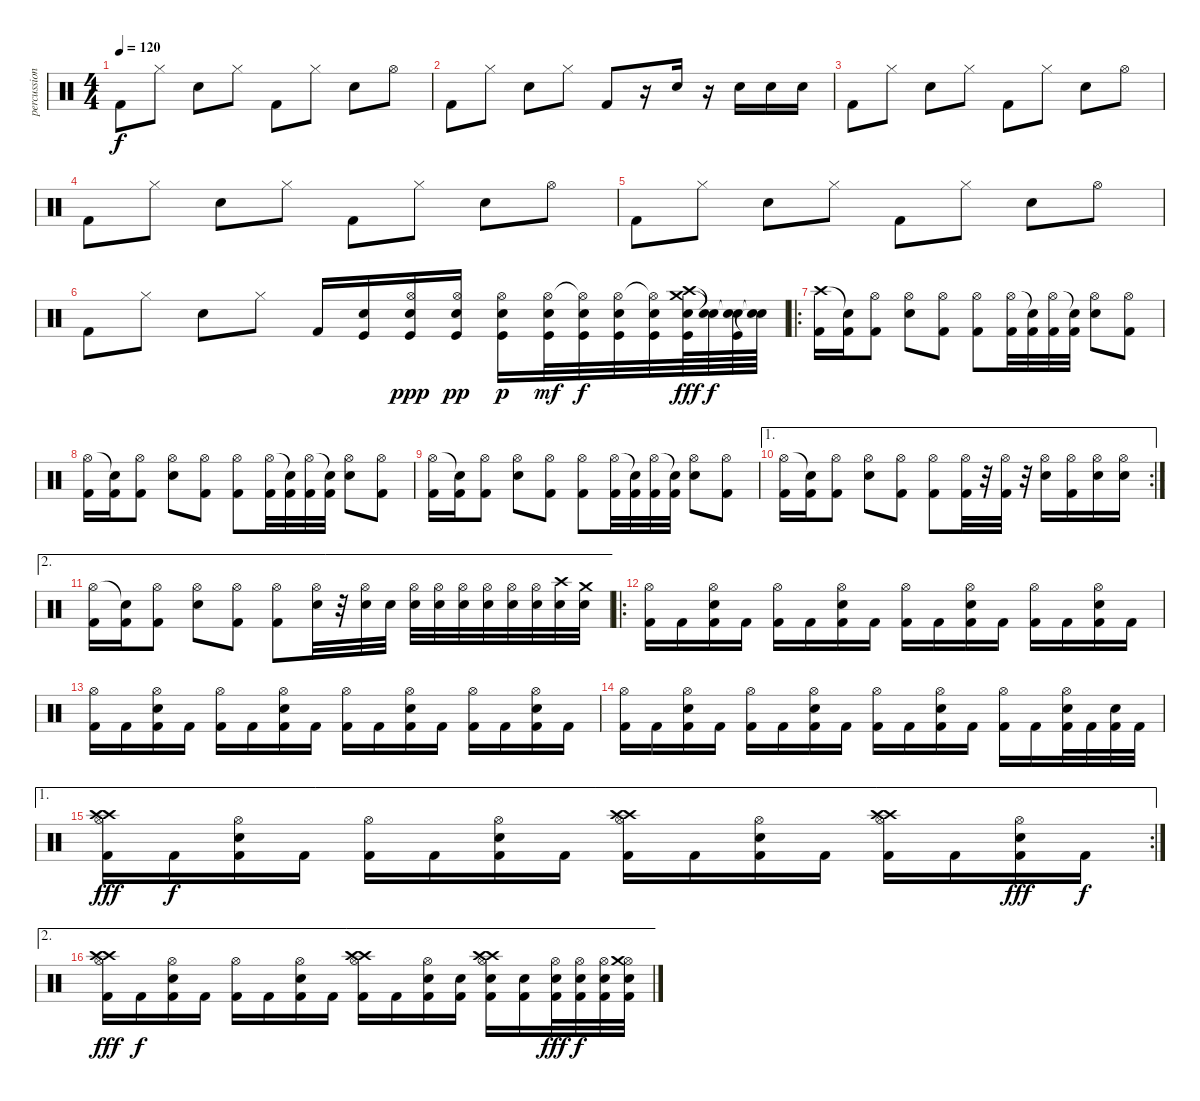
\track ("percussions" "percussion") {instrument percussion}
\staff {score}
\articulation defaults
\ts (4 4)
\tempo 120
\clef neutral
\ks c "Kick (hit) 2".8{dy f} "Hi-Hat (closed)".8 "Electric Snare (hit)".8 "Hi-Hat (closed)".8 "Kick (hit) 2".8 "Hi-Hat (closed)".8 "Electric Snare (hit)".8 "Hi-Hat (open)".8
|
"Kick (hit) 2".8 "Hi-Hat (closed)".8 "Electric Snare (hit)".8 "Hi-Hat (closed)".8 "Kick (hit) 2".8 r.16 "Electric Snare (hit)".16 r.16 "Electric Snare (hit)".16 "Electric Snare (hit)".16 "Electric Snare (hit)".16 |
"Kick (hit) 2".8 "Hi-Hat (closed)".8 "Electric Snare (hit)".8 "Hi-Hat (closed)".8 "Kick (hit) 2".8 "Hi-Hat (closed)".8 "Electric Snare (hit)".8 "Hi-Hat (open)".8 |
"Kick (hit) 2".8 "Hi-Hat (closed)".8 "Electric Snare (hit)".8 "Hi-Hat (closed)".8 "Kick (hit) 2".8 "Hi-Hat (closed)".8 "Electric Snare (hit)".8 "Hi-Hat (open)".8 |
"Kick (hit) 2".8 "Hi-Hat (closed)".8 "Electric Snare (hit)".8 "Hi-Hat (closed)".8 "Kick (hit) 2".8 "Hi-Hat (closed)".8 "Electric Snare (hit)".8 "Hi-Hat (open)".8 |
"Kick (hit) 2".8 "Hi-Hat (closed)".8 "Electric Snare (hit)".8 "Hi-Hat (closed)".8 "Kick (hit) 2".16 ("Kick (hit)" "Electric Snare (hit)").16 ("Hi-Hat (open)" "Kick (hit)" "Electric Snare (hit)").16{dy ppp} ("Hi-Hat (open)" "Kick (hit)" "Electric Snare (hit)").16{dy pp} ("Hi-Hat (open)" "Kick (hit)" "Electric Snare (hit)").16{dy p} ("Hi-Hat (open)" "Kick (hit)" "Electric Snare (hit)").32{dy mf} ("Hi-Hat (open)"{t} "Kick (hit)" "Electric Snare (hit)").32{dy f} ("Hi-Hat (open)" "Kick (hit)" "Electric Snare (hit)").32 ("Hi-Hat (open)"{t} "Kick (hit)" "Electric Snare (hit)").32 ("Crash medium (hit)" "Crash high (hit)" "Kick (hit)" "Electric Snare (hit)").64{dy fff} ("Snare (hit)"{t} "Electric Snare (hit)"{t}).64{dy f} ("Snare (hit)"{t} "Kick (hit)" "Electric Snare (hit)").64 ("Snare (hit)"{t} "Electric Snare (hit)"{t}).64 |
\ro
("Crash high (hit)" "Kick (hit) 2").16 ("Snare (hit)"{t} "Kick (hit) 2").16 ("Hi-Hat (open)" "Kick (hit) 2").8 ("Hi-Hat (open)" "Electric Snare (hit)").8 ("Hi-Hat (open)" "Kick (hit) 2").8 ("Hi-Hat (open)" "Kick (hit) 2").8 ("Hi-Hat (open)" "Kick (hit) 2").32 ("Snare (hit)"{t} "Kick (hit) 2").32 ("Hi-Hat (open)" "Kick (hit) 2").32 ("Snare (hit)"{t} "Kick (hit) 2").32 ("Hi-Hat (open)" "Electric Snare (hit)").8 ("Hi-Hat (open)" "Kick (hit) 2").8 |
("Hi-Hat (open)" "Kick (hit) 2").16 ("Snare (hit)"{t} "Kick (hit) 2").16 ("Hi-Hat (open)" "Kick (hit) 2").8 ("Hi-Hat (open)" "Electric Snare (hit)").8 ("Hi-Hat (open)" "Kick (hit) 2").8 ("Hi-Hat (open)" "Kick (hit) 2").8 ("Hi-Hat (open)" "Kick (hit) 2").32 ("Snare (hit)"{t} "Kick (hit) 2").32 ("Hi-Hat (open)" "Kick (hit) 2").32 ("Snare (hit)"{t} "Kick (hit) 2").32 ("Hi-Hat (open)" "Electric Snare (hit)").8 ("Hi-Hat (open)" "Kick (hit) 2").8 |
("Hi-Hat (open)" "Kick (hit) 2").16 ("Snare (hit)"{t} "Kick (hit) 2").16 ("Hi-Hat (open)" "Kick (hit) 2").8 ("Hi-Hat (open)" "Electric Snare (hit)").8 ("Hi-Hat (open)" "Kick (hit) 2").8 ("Hi-Hat (open)" "Kick (hit) 2").8 ("Hi-Hat (open)" "Kick (hit) 2").32 ("Snare (hit)"{t} "Kick (hit) 2").32 ("Hi-Hat (open)" "Kick (hit) 2").32 ("Snare (hit)"{t} "Kick (hit) 2").32 ("Hi-Hat (open)" "Electric Snare (hit)").8 ("Hi-Hat (open)" "Kick (hit) 2").8 |
\ae 1
\rc 2
("Hi-Hat (open)" "Kick (hit) 2").16 ("Snare (hit)"{t} "Kick (hit) 2").16 ("Hi-Hat (open)" "Kick (hit) 2").8 ("Hi-Hat (open)" "Electric Snare (hit)").8 ("Hi-Hat (open)" "Kick (hit) 2").8 ("Hi-Hat (open)" "Kick (hit) 2").8 ("Hi-Hat (open)" "Kick (hit) 2").32 r.32 ("Hi-Hat (open)" "Kick (hit) 2").32 r.32 ("Hi-Hat (open)" "Electric Snare (hit)").16 ("Hi-Hat (open)" "Kick (hit) 2").16 ("Hi-Hat (open)" "Electric Snare (hit)").16 ("Hi-Hat (open)" "Electric Snare (hit)").16 |
\ae 2
("Hi-Hat (open)" "Kick (hit) 2").16 ("Snare (hit)"{t} "Kick (hit) 2").16 ("Hi-Hat (open)" "Kick (hit) 2").8 ("Hi-Hat (open)" "Electric Snare (hit)").8 ("Hi-Hat (open)" "Kick (hit) 2").8 ("Hi-Hat (open)" "Kick (hit) 2").8 ("Hi-Hat (open)" "Electric Snare (hit)").32 r.32 ("Hi-Hat (open)" "Electric Snare (hit)").32 "Electric Snare (hit)".32 ("Hi-Hat (open)" "Electric Snare (hit)").32 ("Hi-Hat (open)" "Electric Snare (hit)").32 ("Hi-Hat (open)" "Electric Snare (hit)").32 ("Hi-Hat (open)" "Electric Snare (hit)").32 ("Hi-Hat (open)" "Electric Snare (hit)").32 ("Hi-Hat (open)" "Electric Snare (hit)").32 ("Crash high (hit)" "Electric Snare (hit)").32 ("Crash medium (hit)" "Electric Snare (hit)").32 |
\ro
("Hi-Hat (open)" "Kick (hit) 2").16 "Kick (hit) 2".16 ("Hi-Hat (open)" "Electric Snare (hit)" "Kick (hit) 2").16 "Kick (hit) 2".16 ("Hi-Hat (open)" "Kick (hit) 2").16 "Kick (hit) 2".16 ("Hi-Hat (open)" "Electric Snare (hit)" "Kick (hit) 2").16 "Kick (hit) 2".16 ("Hi-Hat (open)" "Kick (hit) 2").16 "Kick (hit) 2".16 ("Hi-Hat (open)" "Electric Snare (hit)" "Kick (hit) 2").16 "Kick (hit) 2".16 ("Hi-Hat (open)" "Kick (hit) 2").16 "Kick (hit) 2".16 ("Hi-Hat (open)" "Electric Snare (hit)" "Kick (hit) 2").16 "Kick (hit) 2".16 |
("Hi-Hat (open)" "Kick (hit) 2").16 "Kick (hit) 2".16 ("Hi-Hat (open)" "Electric Snare (hit)" "Kick (hit) 2").16 "Kick (hit) 2".16 ("Hi-Hat (open)" "Kick (hit) 2").16 "Kick (hit) 2".16 ("Hi-Hat (open)" "Electric Snare (hit)" "Kick (hit) 2").16 "Kick (hit) 2".16 ("Hi-Hat (open)" "Kick (hit) 2").16 "Kick (hit) 2".16 ("Hi-Hat (open)" "Electric Snare (hit)" "Kick (hit) 2").16 "Kick (hit) 2".16 ("Hi-Hat (open)" "Kick (hit) 2").16 "Kick (hit) 2".16 ("Hi-Hat (open)" "Electric Snare (hit)" "Kick (hit) 2").16 "Kick (hit) 2".16 |
("Hi-Hat (open)" "Kick (hit) 2").16 "Kick (hit) 2".16 ("Hi-Hat (open)" "Electric Snare (hit)" "Kick (hit) 2").16 "Kick (hit) 2".16 ("Hi-Hat (open)" "Kick (hit) 2").16 "Kick (hit) 2".16 ("Hi-Hat (open)" "Electric Snare (hit)" "Kick (hit) 2").16 "Kick (hit) 2".16 ("Hi-Hat (open)" "Kick (hit) 2").16 "Kick (hit) 2".16 ("Hi-Hat (open)" "Electric Snare (hit)" "Kick (hit) 2").16 "Kick (hit) 2".16 ("Hi-Hat (open)" "Kick (hit) 2").16 "Kick (hit) 2".16 ("Hi-Hat (open)" "Electric Snare (hit)" "Kick (hit) 2").32 "Kick (hit) 2".32 ("Electric Snare (hit)" "Kick (hit) 2").32 "Kick (hit) 2".32 |
\ae 1
\rc 2
("Crash high (hit)" "Crash high (hit)" "Hi-Hat (open)" "Kick (hit) 2").16{dy fff} "Kick (hit) 2".16{dy f} ("Hi-Hat (open)" "Electric Snare (hit)" "Kick (hit) 2").16 "Kick (hit) 2".16 ("Hi-Hat (open)" "Kick (hit) 2").16 "Kick (hit) 2".16 ("Hi-Hat (open)" "Electric Snare (hit)" "Kick (hit) 2").16 "Kick (hit) 2".16 ("Crash high (hit)" "Crash high (hit)" "Hi-Hat (open)" "Kick (hit) 2").16 "Kick (hit) 2".16 ("Hi-Hat (open)" "Electric Snare (hit)" "Kick (hit) 2").16 "Kick (hit) 2".16 ("Crash high (hit)" "Crash high (hit)" "Hi-Hat (open)" "Kick (hit) 2").16 "Kick (hit) 2".16 ("Hi-Hat (open)" "Electric Snare (hit)" "Kick (hit) 2").16{dy fff} "Kick (hit) 2".16{dy f} |
\ae 2
("Crash high (hit)" "Crash high (hit)" "Hi-Hat (open)" "Kick (hit) 2").16{dy fff} "Kick (hit) 2".16{dy f} ("Hi-Hat (open)" "Electric Snare (hit)" "Kick (hit) 2").16 "Kick (hit) 2".16 ("Hi-Hat (open)" "Kick (hit) 2").16 "Kick (hit) 2".16 ("Hi-Hat (open)" "Electric Snare (hit)" "Kick (hit) 2").16 "Kick (hit) 2".16 ("Crash high (hit)" "Crash high (hit)" "Hi-Hat (open)" "Kick (hit) 2").16 "Kick (hit) 2".16 ("Hi-Hat (open)" "Electric Snare (hit)" "Kick (hit) 2").16 ("Electric Snare (hit)" "Kick (hit) 2").16 ("Crash high (hit)" "Crash high (hit)" "Hi-Hat (open)" "Electric Snare (hit)" "Kick (hit) 2").16 ("Electric Snare (hit)" "Kick (hit) 2").16 ("Hi-Hat (open)" "Electric Snare (hit)" "Kick (hit) 2").32{dy fff} ("Hi-Hat (open)" "Electric Snare (hit)" "Kick (hit) 2").32{dy f} ("Hi-Hat (open)" "Electric Snare (hit)" "Kick (hit) 2").32 ("Hi-Hat (open)" "Crash medium (hit)" "Electric Snare (hit)" "Kick (hit) 2").32
